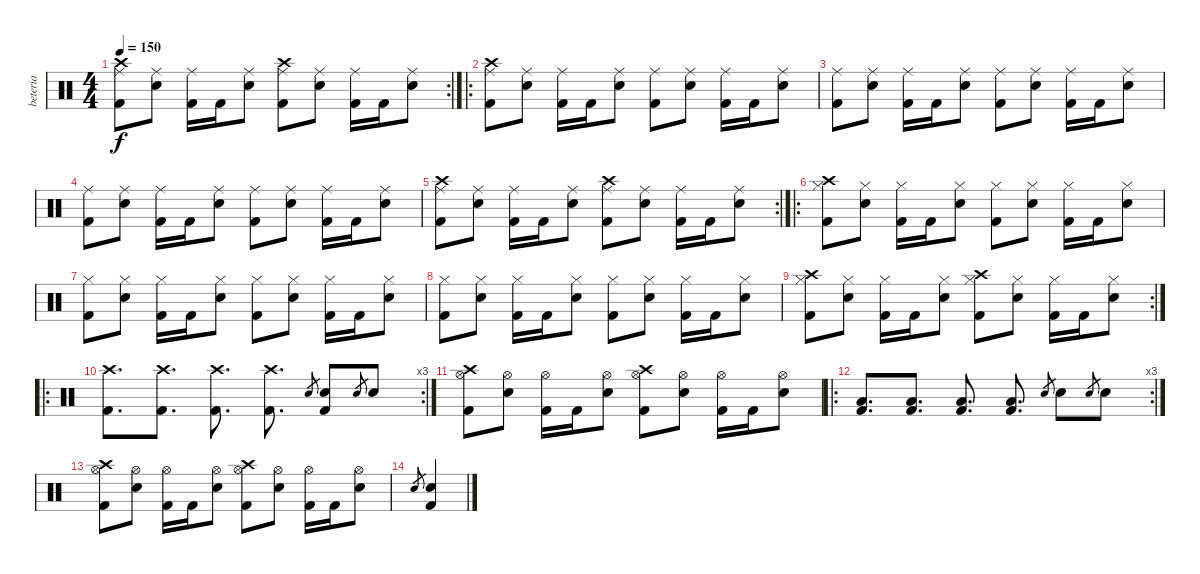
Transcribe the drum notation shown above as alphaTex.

\track ("beteria" "beteria") {instrument percussion}
\staff {score}
\articulation defaults
\rc 2
\ts (4 4)
\tempo 150
\clef neutral
\ks c
("Kick (hit) 2" "Ride (middle)" "Crash high (hit)").8{dy f} ("Electric Snare (hit)" "Ride (middle)").8 ("Kick (hit) 2" "Ride (middle)").16 "Kick (hit) 2".16 ("Electric Snare (hit)" "Ride (middle)").8 ("Kick (hit) 2" "Ride (middle)" "Crash high (hit)").8 ("Electric Snare (hit)" "Ride (middle)").8 ("Kick (hit) 2" "Ride (middle)").16 "Kick (hit) 2".16 ("Electric Snare (hit)" "Ride (middle)").8 |
\ro
("Kick (hit) 2" "Ride (middle)" "Crash high (hit)").8 ("Electric Snare (hit)" "Ride (middle)").8 ("Kick (hit) 2" "Ride (middle)").16 "Kick (hit) 2".16 ("Electric Snare (hit)" "Ride (middle)").8 ("Kick (hit) 2" "Ride (middle)").8 ("Electric Snare (hit)" "Ride (middle)").8 ("Kick (hit) 2" "Ride (middle)").16 "Kick (hit) 2".16 ("Electric Snare (hit)" "Ride (middle)").8 |
("Kick (hit) 2" "Ride (middle)").8 ("Electric Snare (hit)" "Ride (middle)").8 ("Kick (hit) 2" "Ride (middle)").16 "Kick (hit) 2".16 ("Electric Snare (hit)" "Ride (middle)").8 ("Kick (hit) 2" "Ride (middle)").8 ("Electric Snare (hit)" "Ride (middle)").8 ("Kick (hit) 2" "Ride (middle)").16 "Kick (hit) 2".16 ("Electric Snare (hit)" "Ride (middle)").8 |
("Kick (hit) 2" "Ride (middle)").8 ("Electric Snare (hit)" "Ride (middle)").8 ("Kick (hit) 2" "Ride (middle)").16 "Kick (hit) 2".16 ("Electric Snare (hit)" "Ride (middle)").8 ("Kick (hit) 2" "Ride (middle)").8 ("Electric Snare (hit)" "Ride (middle)").8 ("Kick (hit) 2" "Ride (middle)").16 "Kick (hit) 2".16 ("Electric Snare (hit)" "Ride (middle)").8 |
\rc 2
("Kick (hit) 2" "Ride (middle)" "Crash high (hit)").8 ("Electric Snare (hit)" "Ride (middle)").8 ("Kick (hit) 2" "Ride (middle)").16 "Kick (hit) 2".16 ("Electric Snare (hit)" "Ride (middle)").8 ("Kick (hit) 2" "Ride (middle)" "Crash high (hit)").8 ("Electric Snare (hit)" "Ride (middle)").8 ("Kick (hit) 2" "Ride (middle)").16 "Kick (hit) 2".16 ("Electric Snare (hit)" "Ride (middle)").8 |
\ro
("Kick (hit) 2" "Hi-Hat (closed)" "Crash high (hit)").8 ("Electric Snare (hit)" "Hi-Hat (closed)").8 ("Kick (hit) 2" "Hi-Hat (closed)").16 "Kick (hit) 2".16 ("Electric Snare (hit)" "Hi-Hat (closed)").8 ("Kick (hit) 2" "Hi-Hat (closed)").8 ("Electric Snare (hit)" "Hi-Hat (closed)").8 ("Kick (hit) 2" "Hi-Hat (closed)").16 "Kick (hit) 2".16 ("Electric Snare (hit)" "Hi-Hat (closed)").8 |
("Kick (hit) 2" "Hi-Hat (closed)").8 ("Electric Snare (hit)" "Hi-Hat (closed)").8 ("Kick (hit) 2" "Hi-Hat (closed)").16 "Kick (hit) 2".16 ("Electric Snare (hit)" "Hi-Hat (closed)").8 ("Kick (hit) 2" "Hi-Hat (closed)").8 ("Electric Snare (hit)" "Hi-Hat (closed)").8 ("Kick (hit) 2" "Hi-Hat (closed)").16 "Kick (hit) 2".16 ("Electric Snare (hit)" "Hi-Hat (closed)").8 |
("Kick (hit) 2" "Hi-Hat (closed)").8 ("Electric Snare (hit)" "Hi-Hat (closed)").8 ("Kick (hit) 2" "Hi-Hat (closed)").16 "Kick (hit) 2".16 ("Electric Snare (hit)" "Hi-Hat (closed)").8 ("Kick (hit) 2" "Hi-Hat (closed)").8 ("Electric Snare (hit)" "Hi-Hat (closed)").8 ("Kick (hit) 2" "Hi-Hat (closed)").16 "Kick (hit) 2".16 ("Electric Snare (hit)" "Hi-Hat (closed)").8 |
\rc 2
("Kick (hit) 2" "Hi-Hat (closed)" "Crash high (hit)").8 ("Electric Snare (hit)" "Hi-Hat (closed)").8 ("Kick (hit) 2" "Hi-Hat (closed)").16 "Kick (hit) 2".16 ("Electric Snare (hit)" "Hi-Hat (closed)").8 ("Kick (hit) 2" "Hi-Hat (closed)" "Crash high (hit)").8 ("Electric Snare (hit)" "Hi-Hat (closed)").8 ("Kick (hit) 2" "Hi-Hat (closed)").16 "Kick (hit) 2".16 ("Electric Snare (hit)" "Hi-Hat (closed)").8 |
\ro
\rc 3
("Kick (hit) 2" "Crash high (hit)").8{d} ("Kick (hit) 2" "Crash high (hit)").8{d} ("Kick (hit) 2" "Crash high (hit)").8{d} ("Crash high (hit)" "Kick (hit) 2").8{d} "Electric Snare (hit)".8{gr} ("Electric Snare (hit)" "Kick (hit) 2").8 "Electric Snare (hit)".8{gr} "Electric Snare (hit)".8 |
("Kick (hit) 2" "Hi-Hat (open)" "Crash high (hit)").8 ("Electric Snare (hit)" "Hi-Hat (open)").8 ("Kick (hit) 2" "Hi-Hat (open)").16 "Kick (hit) 2".16 ("Electric Snare (hit)" "Hi-Hat (open)").8 ("Kick (hit) 2" "Hi-Hat (open)" "Crash high (hit)").8 ("Electric Snare (hit)" "Hi-Hat (open)").8 ("Kick (hit) 2" "Hi-Hat (open)").16 "Kick (hit) 2".16 ("Electric Snare (hit)" "Hi-Hat (open)").8 |
\ro
\rc 3
("Kick (hit) 2" "Low Floor Tom (hit)").8{d} ("Kick (hit) 2" "Low Floor Tom (hit)").8{d} ("Kick (hit) 2" "Low Floor Tom (hit)").8{d} ("Kick (hit) 2" "Low Floor Tom (hit)").8{d} "Electric Snare (hit)".8{gr} "Electric Snare (hit)".8 "Electric Snare (hit)".8{gr} "Electric Snare (hit)".8 |
("Kick (hit) 2" "Hi-Hat (open)" "Crash high (hit)").8 ("Electric Snare (hit)" "Hi-Hat (open)").8 ("Kick (hit) 2" "Hi-Hat (open)").16 "Kick (hit) 2".16 ("Electric Snare (hit)" "Hi-Hat (open)").8 ("Kick (hit) 2" "Hi-Hat (open)" "Crash high (hit)").8 ("Electric Snare (hit)" "Hi-Hat (open)").8 ("Kick (hit) 2" "Hi-Hat (open)").16 "Kick (hit) 2".16 ("Electric Snare (hit)" "Hi-Hat (open)").8 |
"Electric Snare (hit)".8{gr} ("Electric Snare (hit)" "Kick (hit) 2").4
